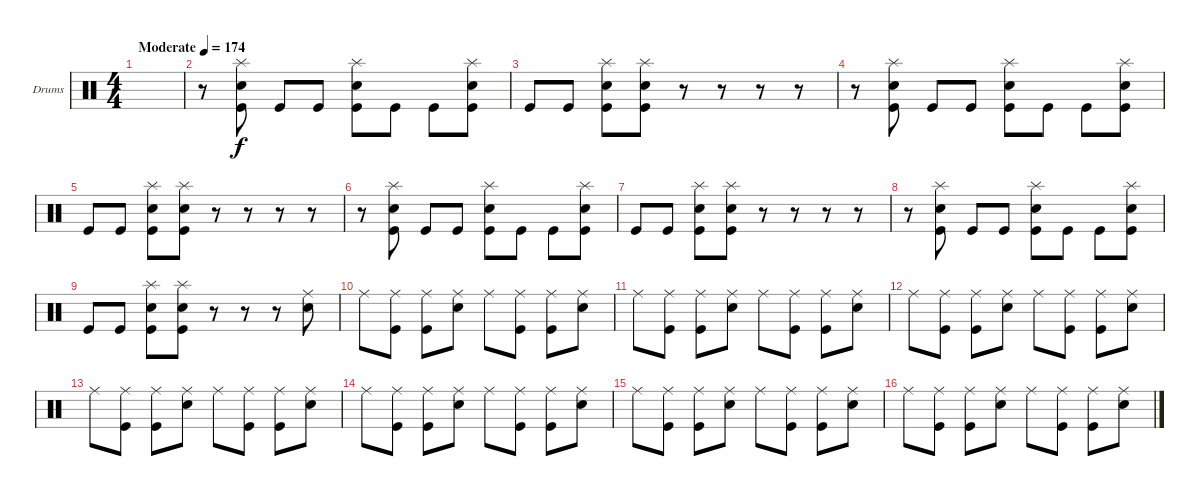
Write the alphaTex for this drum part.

\bracketExtendMode groupsimilarinstruments
\firstSystemTrackNameOrientation horizontal
\otherSystemsTrackNameOrientation horizontal
\track ("Drumkit" "Drums") {instrument percussion}
\staff {score}
\articulation defaults
\ts (4 4)
\tempo (174 "Moderate")
\clef neutral
\ks c
|
\beaming (8 2 2 2 2)
\scale
0.474178 r.8 ("Splash (hit)" "Snare (hit) 2" "Kick (hit)").8 "Kick (hit)".8 "Kick (hit)".8 ("Splash (hit)" "Snare (hit) 2" "Kick (hit)").8 "Kick (hit)".8 "Kick (hit)".8 ("Splash (hit)" "Snare (hit) 2" "Kick (hit)").8 |
\scale
0.262911 "Kick (hit)".8 "Kick (hit)".8 ("Splash (hit)" "Snare (hit) 2" "Kick (hit)").8 ("Splash (hit)" "Snare (hit) 2" "Kick (hit)").8 r.8 r.8 r.8 r.8 |
\scale
0.262911 r.8 ("Splash (hit)" "Snare (hit) 2" "Kick (hit)").8 "Kick (hit)".8 "Kick (hit)".8 ("Splash (hit)" "Snare (hit) 2" "Kick (hit)").8 "Kick (hit)".8 "Kick (hit)".8 ("Splash (hit)" "Snare (hit) 2" "Kick (hit)").8 |
\scale
0.333333 "Kick (hit)".8 "Kick (hit)".8 ("Splash (hit)" "Snare (hit) 2" "Kick (hit)").8 ("Splash (hit)" "Snare (hit) 2" "Kick (hit)").8 r.8 r.8 r.8 r.8 |
\scale
0.333333 r.8 ("Splash (hit)" "Snare (hit) 2" "Kick (hit)").8 "Kick (hit)".8 "Kick (hit)".8 ("Splash (hit)" "Snare (hit) 2" "Kick (hit)").8 "Kick (hit)".8 "Kick (hit)".8 ("Splash (hit)" "Snare (hit) 2" "Kick (hit)").8 |
\scale
0.333333 "Kick (hit)".8 "Kick (hit)".8 ("Splash (hit)" "Snare (hit) 2" "Kick (hit)").8 ("Splash (hit)" "Snare (hit) 2" "Kick (hit)").8 r.8 r.8 r.8 r.8 |
\scale
0.333333 r.8 ("Splash (hit)" "Snare (hit) 2" "Kick (hit)").8 "Kick (hit)".8 "Kick (hit)".8 ("Splash (hit)" "Snare (hit) 2" "Kick (hit)").8 "Kick (hit)".8 "Kick (hit)".8 ("Splash (hit)" "Snare (hit) 2" "Kick (hit)").8 |
\scale
0.333333 "Kick (hit)".8 "Kick (hit)".8 ("Splash (hit)" "Snare (hit) 2" "Kick (hit)").8 ("Splash (hit)" "Snare (hit) 2" "Kick (hit)").8 r.8 r.8 r.8 ("Ride (middle)" "Snare (hit) 2").8 |
\scale
0.333333 "Ride (middle)".8 ("Kick (hit)" "Ride (middle)").8 ("Kick (hit)" "Ride (middle)").8 ("Snare (hit) 2" "Ride (middle)").8 "Ride (middle)".8 ("Ride (middle)" "Kick (hit)").8 ("Kick (hit)" "Ride (middle)").8 ("Snare (hit) 2" "Ride (middle)").8 |
\scale
0.333333 "Ride (middle)".8 ("Kick (hit)" "Ride (middle)").8 ("Kick (hit)" "Ride (middle)").8 ("Snare (hit) 2" "Ride (middle)").8 "Ride (middle)".8 ("Ride (middle)" "Kick (hit)").8 ("Kick (hit)" "Ride (middle)").8 ("Snare (hit) 2" "Ride (middle)").8 |
\scale
0.333333 "Ride (middle)".8 ("Kick (hit)" "Ride (middle)").8 ("Kick (hit)" "Ride (middle)").8 ("Snare (hit) 2" "Ride (middle)").8 "Ride (middle)".8 ("Ride (middle)" "Kick (hit)").8 ("Kick (hit)" "Ride (middle)").8 ("Snare (hit) 2" "Ride (middle)").8 |
\scale
0.333333 "Ride (middle)".8 ("Kick (hit)" "Ride (middle)").8 ("Kick (hit)" "Ride (middle)").8 ("Snare (hit) 2" "Ride (middle)").8 "Ride (middle)".8 ("Ride (middle)" "Kick (hit)").8 ("Kick (hit)" "Ride (middle)").8 ("Snare (hit) 2" "Ride (middle)").8 |
\scale
0.333333 "Ride (middle)".8 ("Kick (hit)" "Ride (middle)").8 ("Kick (hit)" "Ride (middle)").8 ("Snare (hit) 2" "Ride (middle)").8 "Ride (middle)".8 ("Ride (middle)" "Kick (hit)").8 ("Kick (hit)" "Ride (middle)").8 ("Snare (hit) 2" "Ride (middle)").8 |
\scale
0.333333 "Ride (middle)".8 ("Kick (hit)" "Ride (middle)").8 ("Kick (hit)" "Ride (middle)").8 ("Snare (hit) 2" "Ride (middle)").8 "Ride (middle)".8 ("Ride (middle)" "Kick (hit)").8 ("Kick (hit)" "Ride (middle)").8 ("Snare (hit) 2" "Ride (middle)").8 |
\scale
0.333333 "Ride (middle)".8 ("Kick (hit)" "Ride (middle)").8 ("Kick (hit)" "Ride (middle)").8 ("Snare (hit) 2" "Ride (middle)").8 "Ride (middle)".8 ("Ride (middle)" "Kick (hit)").8 ("Kick (hit)" "Ride (middle)").8 ("Snare (hit) 2" "Ride (middle)").8
